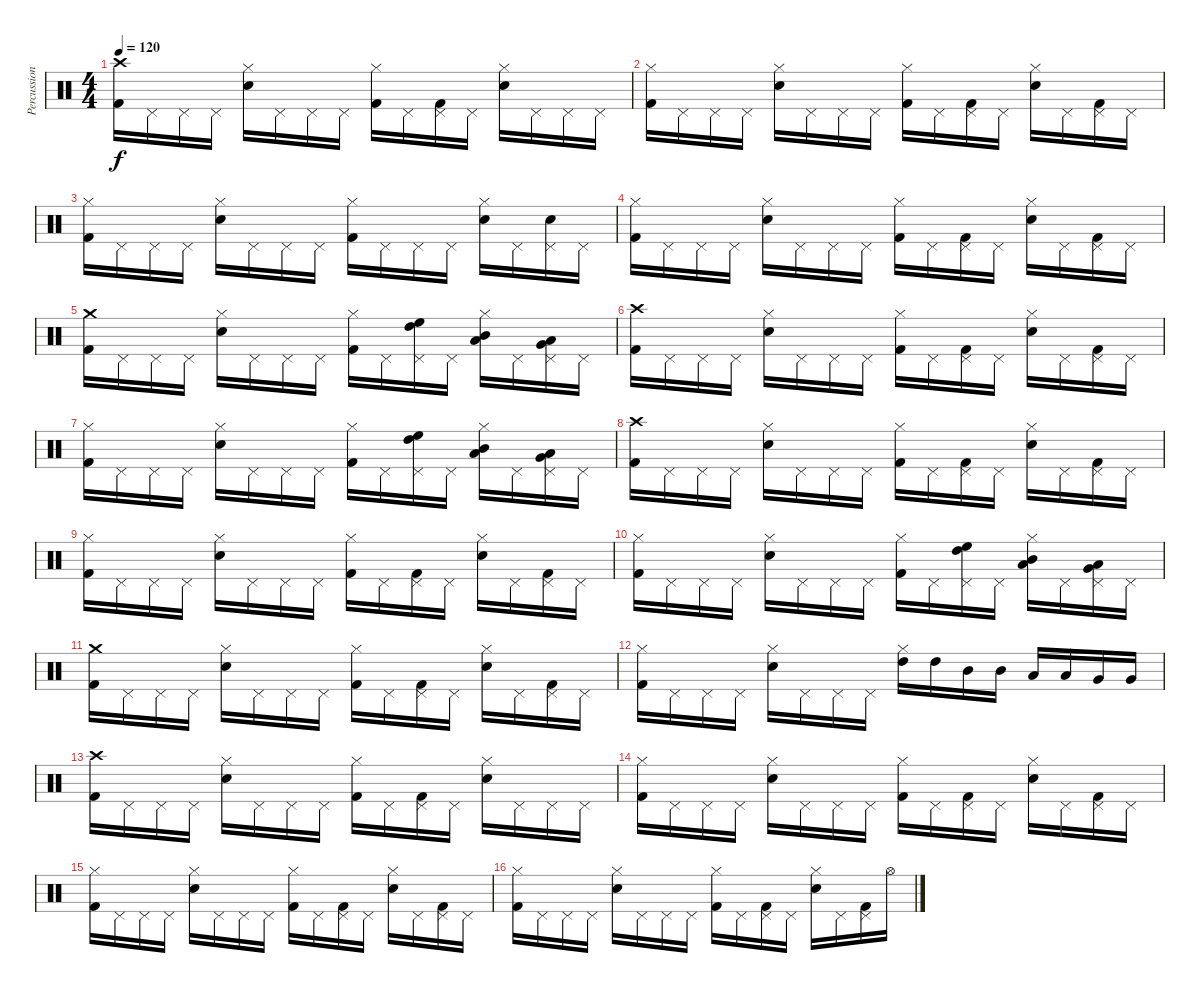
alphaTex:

\track ("Percussion" "Percussion") {instrument percussion}
\staff {score}
\articulation defaults
\ts (4 4)
\tempo 120
\clef neutral
\ks c
("Crash high (hit)" "Kick (hit) 2").16{dy f} "Pedal Hi-Hat (hit)".16 "Pedal Hi-Hat (hit)".16 "Pedal Hi-Hat (hit)".16 ("Hi-Hat (closed)" "Electric Snare (hit)").16 "Pedal Hi-Hat (hit)".16 "Pedal Hi-Hat (hit)".16 "Pedal Hi-Hat (hit)".16 ("Hi-Hat (closed)" "Kick (hit) 2").16 "Pedal Hi-Hat (hit)".16 ("Pedal Hi-Hat (hit)" "Kick (hit) 2").16 "Pedal Hi-Hat (hit)".16 ("Hi-Hat (closed)" "Electric Snare (hit)").16 "Pedal Hi-Hat (hit)".16 "Pedal Hi-Hat (hit)".16 "Pedal Hi-Hat (hit)".16 |
("Hi-Hat (closed)" "Kick (hit) 2").16 "Pedal Hi-Hat (hit)".16 "Pedal Hi-Hat (hit)".16 "Pedal Hi-Hat (hit)".16 ("Hi-Hat (closed)" "Electric Snare (hit)").16 "Pedal Hi-Hat (hit)".16 "Pedal Hi-Hat (hit)".16 "Pedal Hi-Hat (hit)".16 ("Hi-Hat (closed)" "Kick (hit) 2").16 "Pedal Hi-Hat (hit)".16 ("Pedal Hi-Hat (hit)" "Kick (hit) 2").16 "Pedal Hi-Hat (hit)".16 ("Hi-Hat (closed)" "Electric Snare (hit)").16 "Pedal Hi-Hat (hit)".16 ("Pedal Hi-Hat (hit)" "Kick (hit) 2").16 "Pedal Hi-Hat (hit)".16 |
("Hi-Hat (closed)" "Kick (hit) 2").16 "Pedal Hi-Hat (hit)".16 "Pedal Hi-Hat (hit)".16 "Pedal Hi-Hat (hit)".16 ("Hi-Hat (closed)" "Electric Snare (hit)").16 "Pedal Hi-Hat (hit)".16 "Pedal Hi-Hat (hit)".16 "Pedal Hi-Hat (hit)".16 ("Hi-Hat (closed)" "Kick (hit) 2").16 "Pedal Hi-Hat (hit)".16 "Pedal Hi-Hat (hit)".16 "Pedal Hi-Hat (hit)".16 ("Hi-Hat (closed)" "Electric Snare (hit)").16 "Pedal Hi-Hat (hit)".16 ("Pedal Hi-Hat (hit)" "Electric Snare (hit)").16 "Pedal Hi-Hat (hit)".16 |
("Hi-Hat (closed)" "Kick (hit) 2").16 "Pedal Hi-Hat (hit)".16 "Pedal Hi-Hat (hit)".16 "Pedal Hi-Hat (hit)".16 ("Hi-Hat (closed)" "Electric Snare (hit)").16 "Pedal Hi-Hat (hit)".16 "Pedal Hi-Hat (hit)".16 "Pedal Hi-Hat (hit)".16 ("Hi-Hat (closed)" "Kick (hit) 2").16 "Pedal Hi-Hat (hit)".16 ("Pedal Hi-Hat (hit)" "Kick (hit) 2").16 "Pedal Hi-Hat (hit)".16 ("Hi-Hat (closed)" "Electric Snare (hit)").16 "Pedal Hi-Hat (hit)".16 ("Pedal Hi-Hat (hit)" "Kick (hit) 2").16 "Pedal Hi-Hat (hit)".16 |
("Crash medium (hit)" "Kick (hit) 2").16 "Pedal Hi-Hat (hit)".16 "Pedal Hi-Hat (hit)".16 "Pedal Hi-Hat (hit)".16 ("Hi-Hat (closed)" "Electric Snare (hit)").16 "Pedal Hi-Hat (hit)".16 "Pedal Hi-Hat (hit)".16 "Pedal Hi-Hat (hit)".16 ("Hi-Hat (closed)" "Kick (hit) 2").16 "Pedal Hi-Hat (hit)".16 ("Pedal Hi-Hat (hit)" "High Floor Tom (hit)" "High Tom (hit)").16 "Pedal Hi-Hat (hit)".16 ("Hi-Hat (closed)" "Mid Tom (hit)" "Low Tom (hit)").16 "Pedal Hi-Hat (hit)".16 ("Pedal Hi-Hat (hit)" "Very Low Tom (hit)" "Low Floor Tom (hit)").16 "Pedal Hi-Hat (hit)".16 |
("Crash high (hit)" "Kick (hit) 2").16 "Pedal Hi-Hat (hit)".16 "Pedal Hi-Hat (hit)".16 "Pedal Hi-Hat (hit)".16 ("Hi-Hat (closed)" "Electric Snare (hit)").16 "Pedal Hi-Hat (hit)".16 "Pedal Hi-Hat (hit)".16 "Pedal Hi-Hat (hit)".16 ("Hi-Hat (closed)" "Kick (hit) 2").16 "Pedal Hi-Hat (hit)".16 ("Pedal Hi-Hat (hit)" "Kick (hit) 2").16 "Pedal Hi-Hat (hit)".16 ("Hi-Hat (closed)" "Electric Snare (hit)").16 "Pedal Hi-Hat (hit)".16 ("Pedal Hi-Hat (hit)" "Kick (hit) 2").16 "Pedal Hi-Hat (hit)".16 |
("Hi-Hat (closed)" "Kick (hit) 2").16 "Pedal Hi-Hat (hit)".16 "Pedal Hi-Hat (hit)".16 "Pedal Hi-Hat (hit)".16 ("Hi-Hat (closed)" "Electric Snare (hit)").16 "Pedal Hi-Hat (hit)".16 "Pedal Hi-Hat (hit)".16 "Pedal Hi-Hat (hit)".16 ("Hi-Hat (closed)" "Kick (hit) 2").16 "Pedal Hi-Hat (hit)".16 ("Pedal Hi-Hat (hit)" "High Floor Tom (hit)" "High Tom (hit)").16 "Pedal Hi-Hat (hit)".16 ("Hi-Hat (closed)" "Mid Tom (hit)" "Low Tom (hit)").16 "Pedal Hi-Hat (hit)".16 ("Pedal Hi-Hat (hit)" "Very Low Tom (hit)" "Low Floor Tom (hit)").16 "Pedal Hi-Hat (hit)".16 |
("Crash high (hit)" "Kick (hit) 2").16 "Pedal Hi-Hat (hit)".16 "Pedal Hi-Hat (hit)".16 "Pedal Hi-Hat (hit)".16 ("Hi-Hat (closed)" "Electric Snare (hit)").16 "Pedal Hi-Hat (hit)".16 "Pedal Hi-Hat (hit)".16 "Pedal Hi-Hat (hit)".16 ("Hi-Hat (closed)" "Kick (hit) 2").16 "Pedal Hi-Hat (hit)".16 ("Pedal Hi-Hat (hit)" "Kick (hit) 2").16 "Pedal Hi-Hat (hit)".16 ("Hi-Hat (closed)" "Electric Snare (hit)").16 "Pedal Hi-Hat (hit)".16 ("Pedal Hi-Hat (hit)" "Kick (hit) 2").16 "Pedal Hi-Hat (hit)".16 |
("Hi-Hat (closed)" "Kick (hit) 2").16 "Pedal Hi-Hat (hit)".16 "Pedal Hi-Hat (hit)".16 "Pedal Hi-Hat (hit)".16 ("Hi-Hat (closed)" "Electric Snare (hit)").16 "Pedal Hi-Hat (hit)".16 "Pedal Hi-Hat (hit)".16 "Pedal Hi-Hat (hit)".16 ("Hi-Hat (closed)" "Kick (hit) 2").16 "Pedal Hi-Hat (hit)".16 ("Pedal Hi-Hat (hit)" "Kick (hit) 2").16 "Pedal Hi-Hat (hit)".16 ("Hi-Hat (closed)" "Electric Snare (hit)").16 "Pedal Hi-Hat (hit)".16 ("Pedal Hi-Hat (hit)" "Kick (hit) 2").16 "Pedal Hi-Hat (hit)".16 |
("Hi-Hat (closed)" "Kick (hit) 2").16 "Pedal Hi-Hat (hit)".16 "Pedal Hi-Hat (hit)".16 "Pedal Hi-Hat (hit)".16 ("Hi-Hat (closed)" "Electric Snare (hit)").16 "Pedal Hi-Hat (hit)".16 "Pedal Hi-Hat (hit)".16 "Pedal Hi-Hat (hit)".16 ("Hi-Hat (closed)" "Kick (hit) 2").16 "Pedal Hi-Hat (hit)".16 ("Pedal Hi-Hat (hit)" "High Floor Tom (hit)" "High Tom (hit)").16 "Pedal Hi-Hat (hit)".16 ("Hi-Hat (closed)" "Mid Tom (hit)" "Low Tom (hit)").16 "Pedal Hi-Hat (hit)".16 ("Pedal Hi-Hat (hit)" "Very Low Tom (hit)" "Low Floor Tom (hit)").16 "Pedal Hi-Hat (hit)".16 |
("Crash medium (hit)" "Kick (hit) 2").16 "Pedal Hi-Hat (hit)".16 "Pedal Hi-Hat (hit)".16 "Pedal Hi-Hat (hit)".16 ("Hi-Hat (closed)" "Electric Snare (hit)").16 "Pedal Hi-Hat (hit)".16 "Pedal Hi-Hat (hit)".16 "Pedal Hi-Hat (hit)".16 ("Hi-Hat (closed)" "Kick (hit) 2").16 "Pedal Hi-Hat (hit)".16 ("Pedal Hi-Hat (hit)" "Kick (hit) 2").16 "Pedal Hi-Hat (hit)".16 ("Hi-Hat (closed)" "Electric Snare (hit)").16 "Pedal Hi-Hat (hit)".16 ("Pedal Hi-Hat (hit)" "Kick (hit) 2").16 "Pedal Hi-Hat (hit)".16 |
("Hi-Hat (closed)" "Kick (hit) 2").16 "Pedal Hi-Hat (hit)".16 "Pedal Hi-Hat (hit)".16 "Pedal Hi-Hat (hit)".16 ("Hi-Hat (closed)" "Electric Snare (hit)").16 "Pedal Hi-Hat (hit)".16 "Pedal Hi-Hat (hit)".16 "Pedal Hi-Hat (hit)".16 ("Hi-Hat (closed)" "High Tom (hit)").16 "High Tom (hit)".16 "Mid Tom (hit)".16 "Mid Tom (hit)".16 "Low Tom (hit)".16 "Low Tom (hit)".16 "Very Low Tom (hit)".16 "Very Low Tom (hit)".16 |
("Crash high (hit)" "Kick (hit) 2").16 "Pedal Hi-Hat (hit)".16 "Pedal Hi-Hat (hit)".16 "Pedal Hi-Hat (hit)".16 ("Hi-Hat (closed)" "Electric Snare (hit)").16 "Pedal Hi-Hat (hit)".16 "Pedal Hi-Hat (hit)".16 "Pedal Hi-Hat (hit)".16 ("Hi-Hat (closed)" "Kick (hit) 2").16 "Pedal Hi-Hat (hit)".16 ("Pedal Hi-Hat (hit)" "Kick (hit) 2").16 "Pedal Hi-Hat (hit)".16 ("Hi-Hat (closed)" "Electric Snare (hit)").16 "Pedal Hi-Hat (hit)".16 "Pedal Hi-Hat (hit)".16 "Pedal Hi-Hat (hit)".16 |
("Hi-Hat (closed)" "Kick (hit) 2").16 "Pedal Hi-Hat (hit)".16 "Pedal Hi-Hat (hit)".16 "Pedal Hi-Hat (hit)".16 ("Hi-Hat (closed)" "Electric Snare (hit)").16 "Pedal Hi-Hat (hit)".16 "Pedal Hi-Hat (hit)".16 "Pedal Hi-Hat (hit)".16 ("Hi-Hat (closed)" "Kick (hit) 2").16 "Pedal Hi-Hat (hit)".16 ("Pedal Hi-Hat (hit)" "Kick (hit) 2").16 "Pedal Hi-Hat (hit)".16 ("Hi-Hat (closed)" "Electric Snare (hit)").16 "Pedal Hi-Hat (hit)".16 ("Pedal Hi-Hat (hit)" "Kick (hit) 2").16 "Pedal Hi-Hat (hit)".16 |
("Hi-Hat (closed)" "Kick (hit) 2").16 "Pedal Hi-Hat (hit)".16 "Pedal Hi-Hat (hit)".16 "Pedal Hi-Hat (hit)".16 ("Hi-Hat (closed)" "Electric Snare (hit)").16 "Pedal Hi-Hat (hit)".16 "Pedal Hi-Hat (hit)".16 "Pedal Hi-Hat (hit)".16 ("Hi-Hat (closed)" "Kick (hit) 2").16 "Pedal Hi-Hat (hit)".16 ("Pedal Hi-Hat (hit)" "Kick (hit) 2").16 "Pedal Hi-Hat (hit)".16 ("Hi-Hat (closed)" "Electric Snare (hit)").16 "Pedal Hi-Hat (hit)".16 ("Pedal Hi-Hat (hit)" "Kick (hit) 2").16 "Pedal Hi-Hat (hit)".16 |
("Hi-Hat (closed)" "Kick (hit) 2").16 "Pedal Hi-Hat (hit)".16 "Pedal Hi-Hat (hit)".16 "Pedal Hi-Hat (hit)".16 ("Hi-Hat (closed)" "Electric Snare (hit)").16 "Pedal Hi-Hat (hit)".16 "Pedal Hi-Hat (hit)".16 "Pedal Hi-Hat (hit)".16 ("Hi-Hat (closed)" "Kick (hit) 2").16 "Pedal Hi-Hat (hit)".16 ("Pedal Hi-Hat (hit)" "Kick (hit) 2").16 "Pedal Hi-Hat (hit)".16 ("Hi-Hat (closed)" "Electric Snare (hit)").16 "Pedal Hi-Hat (hit)".16 ("Pedal Hi-Hat (hit)" "Kick (hit) 2").16 "Hi-Hat (open)".16
